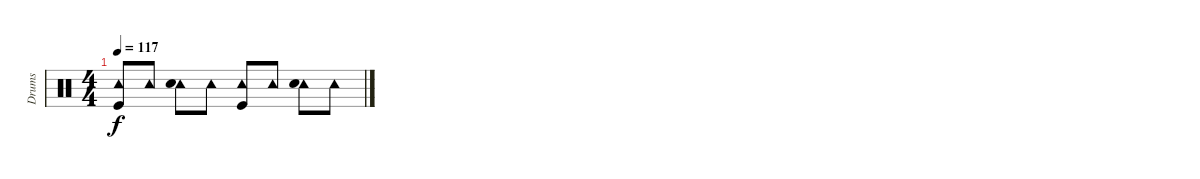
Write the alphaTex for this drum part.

\track ("Drums" "Drums") {instrument percussion}
\staff {score}
\articulation defaults
\ts (4 4)
\tempo 117
\clef neutral
\ks c
("Tambourine (hit)" "Kick (hit)").8{dy f} "Tambourine (hit)".8 ("Tambourine (hit)" "Electric Snare (hit)").8 "Tambourine (hit)".8 ("Tambourine (hit)" "Kick (hit)").8 "Tambourine (hit)".8 ("Tambourine (hit)" "Electric Snare (hit)").8 "Tambourine (hit)".8
